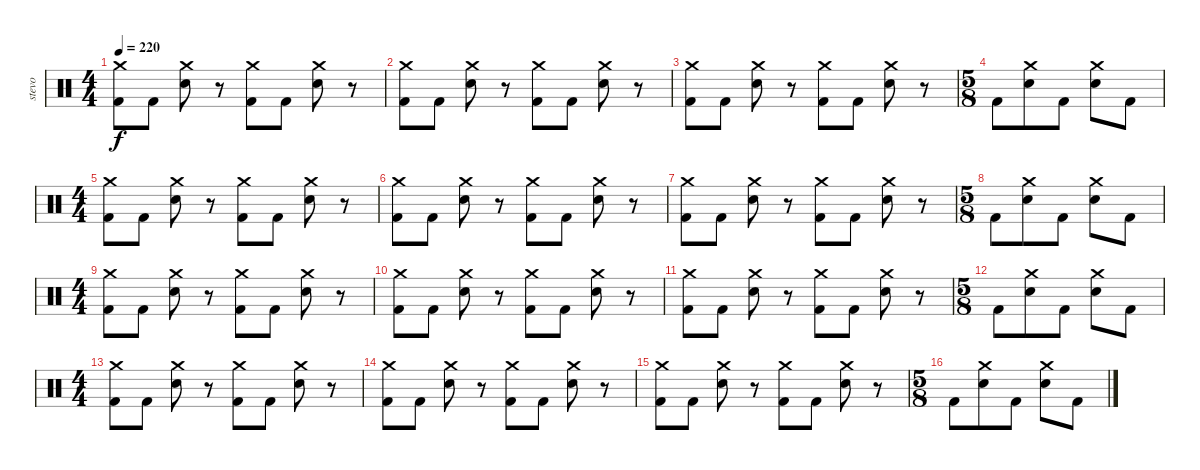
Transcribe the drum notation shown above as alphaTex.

\track ("stevo" "stevo") {instrument percussion}
\staff {score}
\articulation defaults
\ts (4 4)
\tempo 220
\clef neutral
\ks c
("Crash medium (hit)" "Kick (hit) 2").8{dy f} "Kick (hit) 2".8 ("Crash medium (hit)" "Electric Snare (hit)").8 r.8 ("Crash medium (hit)" "Kick (hit) 2").8 "Kick (hit) 2".8 ("Crash medium (hit)" "Electric Snare (hit)").8 r.8 |
("Crash medium (hit)" "Kick (hit) 2").8 "Kick (hit) 2".8 ("Crash medium (hit)" "Electric Snare (hit)").8 r.8 ("Crash medium (hit)" "Kick (hit) 2").8 "Kick (hit) 2".8 ("Crash medium (hit)" "Electric Snare (hit)").8 r.8 |
("Crash medium (hit)" "Kick (hit) 2").8 "Kick (hit) 2".8 ("Crash medium (hit)" "Electric Snare (hit)").8 r.8 ("Crash medium (hit)" "Kick (hit) 2").8 "Kick (hit) 2".8 ("Crash medium (hit)" "Electric Snare (hit)").8 r.8 |
\ts (5 8)
"Kick (hit) 2".8 ("Crash medium (hit)" "Electric Snare (hit)").8 "Kick (hit) 2".8 ("Crash medium (hit)" "Electric Snare (hit)").8 "Kick (hit) 2".8 |
\ts (4 4)
("Crash medium (hit)" "Kick (hit) 2").8 "Kick (hit) 2".8 ("Crash medium (hit)" "Electric Snare (hit)").8 r.8 ("Crash medium (hit)" "Kick (hit) 2").8 "Kick (hit) 2".8 ("Crash medium (hit)" "Electric Snare (hit)").8 r.8 |
("Crash medium (hit)" "Kick (hit) 2").8 "Kick (hit) 2".8 ("Crash medium (hit)" "Electric Snare (hit)").8 r.8 ("Crash medium (hit)" "Kick (hit) 2").8 "Kick (hit) 2".8 ("Crash medium (hit)" "Electric Snare (hit)").8 r.8 |
("Crash medium (hit)" "Kick (hit) 2").8 "Kick (hit) 2".8 ("Crash medium (hit)" "Electric Snare (hit)").8 r.8 ("Crash medium (hit)" "Kick (hit) 2").8 "Kick (hit) 2".8 ("Crash medium (hit)" "Electric Snare (hit)").8 r.8 |
\ts (5 8)
"Kick (hit) 2".8 ("Crash medium (hit)" "Electric Snare (hit)").8 "Kick (hit) 2".8 ("Crash medium (hit)" "Electric Snare (hit)").8 "Kick (hit) 2".8 |
\ts (4 4)
("Crash medium (hit)" "Kick (hit) 2").8 "Kick (hit) 2".8 ("Crash medium (hit)" "Electric Snare (hit)").8 r.8 ("Crash medium (hit)" "Kick (hit) 2").8 "Kick (hit) 2".8 ("Crash medium (hit)" "Electric Snare (hit)").8 r.8 |
("Crash medium (hit)" "Kick (hit) 2").8 "Kick (hit) 2".8 ("Crash medium (hit)" "Electric Snare (hit)").8 r.8 ("Crash medium (hit)" "Kick (hit) 2").8 "Kick (hit) 2".8 ("Crash medium (hit)" "Electric Snare (hit)").8 r.8 |
("Crash medium (hit)" "Kick (hit) 2").8 "Kick (hit) 2".8 ("Crash medium (hit)" "Electric Snare (hit)").8 r.8 ("Crash medium (hit)" "Kick (hit) 2").8 "Kick (hit) 2".8 ("Crash medium (hit)" "Electric Snare (hit)").8 r.8 |
\ts (5 8)
"Kick (hit) 2".8 ("Crash medium (hit)" "Electric Snare (hit)").8 "Kick (hit) 2".8 ("Crash medium (hit)" "Electric Snare (hit)").8 "Kick (hit) 2".8 |
\ts (4 4)
("Crash medium (hit)" "Kick (hit) 2").8 "Kick (hit) 2".8 ("Crash medium (hit)" "Electric Snare (hit)").8 r.8 ("Crash medium (hit)" "Kick (hit) 2").8 "Kick (hit) 2".8 ("Crash medium (hit)" "Electric Snare (hit)").8 r.8 |
("Crash medium (hit)" "Kick (hit) 2").8 "Kick (hit) 2".8 ("Crash medium (hit)" "Electric Snare (hit)").8 r.8 ("Crash medium (hit)" "Kick (hit) 2").8 "Kick (hit) 2".8 ("Crash medium (hit)" "Electric Snare (hit)").8 r.8 |
("Crash medium (hit)" "Kick (hit) 2").8 "Kick (hit) 2".8 ("Crash medium (hit)" "Electric Snare (hit)").8 r.8 ("Crash medium (hit)" "Kick (hit) 2").8 "Kick (hit) 2".8 ("Crash medium (hit)" "Electric Snare (hit)").8 r.8 |
\ts (5 8)
"Kick (hit) 2".8 ("Crash medium (hit)" "Electric Snare (hit)").8 "Kick (hit) 2".8 ("Crash medium (hit)" "Electric Snare (hit)").8 "Kick (hit) 2".8
